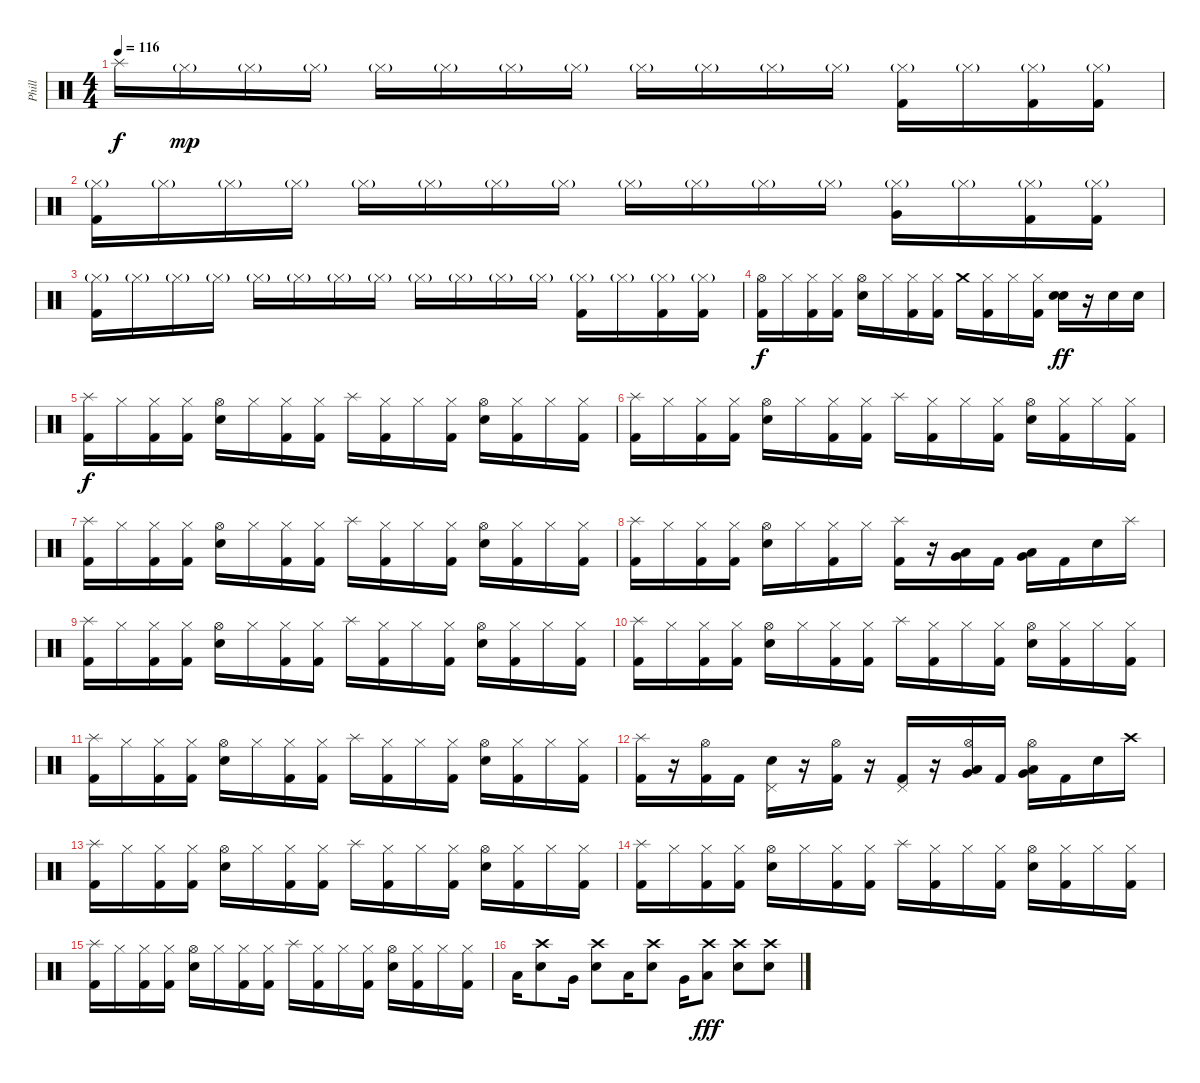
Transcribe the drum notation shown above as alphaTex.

\track ("Phill" "Phill") {instrument percussion}
\staff {score}
\articulation defaults
\ts (4 4)
\tempo 116
\clef neutral
\ks c "Splash (hit)".16{dy f} "Hi-Hat (closed)"{g}.16{dy mp} "Hi-Hat (closed)"{g}.16 "Hi-Hat (closed)"{g}.16 "Hi-Hat (closed)"{g}.16 "Hi-Hat (closed)"{g}.16 "Hi-Hat (closed)"{g}.16 "Hi-Hat (closed)"{g}.16 "Hi-Hat (closed)"{g}.16 "Hi-Hat (closed)"{g}.16 "Hi-Hat (closed)"{g}.16 "Hi-Hat (closed)"{g}.16
("Hi-Hat (closed)"{g} "Kick (hit) 2").16 "Hi-Hat (closed)"{g}.16 ("Hi-Hat (closed)"{g} "Kick (hit) 2").16 ("Hi-Hat (closed)"{g} "Kick (hit) 2").16 |
("Hi-Hat (closed)"{g} "Kick (hit) 2").16 "Hi-Hat (closed)"{g}.16 "Hi-Hat (closed)"{g}.16 "Hi-Hat (closed)"{g}.16 "Hi-Hat (closed)"{g}.16 "Hi-Hat (closed)"{g}.16 "Hi-Hat (closed)"{g}.16 "Hi-Hat (closed)"{g}.16 "Hi-Hat (closed)"{g}.16 "Hi-Hat (closed)"{g}.16 "Hi-Hat (closed)"{g}.16 "Hi-Hat (closed)"{g}.16 ("Hi-Hat (closed)"{g} "Very Low Tom (hit)").16 "Hi-Hat (closed)"{g}.16 ("Hi-Hat (closed)"{g} "Kick (hit) 2").16 ("Hi-Hat (closed)"{g} "Kick (hit) 2").16 |
("Hi-Hat (closed)"{g} "Kick (hit) 2").16 "Hi-Hat (closed)"{g}.16 "Hi-Hat (closed)"{g}.16 "Hi-Hat (closed)"{g}.16 "Hi-Hat (closed)"{g}.16 "Hi-Hat (closed)"{g}.16 "Hi-Hat (closed)"{g}.16 "Hi-Hat (closed)"{g}.16 "Hi-Hat (closed)"{g}.16 "Hi-Hat (closed)"{g}.16 "Hi-Hat (closed)"{g}.16 "Hi-Hat (closed)"{g}.16 ("Hi-Hat (closed)"{g} "Kick (hit) 2").16 "Hi-Hat (closed)"{g}.16 ("Hi-Hat (closed)"{g} "Kick (hit) 2").16 ("Hi-Hat (closed)"{g} "Kick (hit) 2").16 |
("Hi-Hat (open)" "Kick (hit) 2").16{dy f} "Hi-Hat (closed)".16 ("Hi-Hat (closed)" "Kick (hit) 2").16 ("Hi-Hat (closed)" "Kick (hit) 2").16 ("Hi-Hat (open)" "Electric Snare (hit)").16 "Hi-Hat (closed)".16 ("Hi-Hat (closed)" "Kick (hit) 2").16 ("Hi-Hat (closed)" "Kick (hit) 2").16 "Crash medium (hit)".16 ("Hi-Hat (closed)" "Kick (hit) 2").16 "Hi-Hat (closed)".16 ("Hi-Hat (closed)" "Kick (hit) 2").16 ("Electric Snare (hit)" "Electric Snare (hit)").16{bd 480 dy ff} r.16 "Electric Snare (hit)".16 "Electric Snare (hit)".16 |
("Splash (hit)" "Kick (hit) 2").16{dy f} "Hi-Hat (closed)".16 ("Hi-Hat (closed)" "Kick (hit) 2").16 ("Hi-Hat (closed)" "Kick (hit) 2").16 ("Hi-Hat (open)" "Electric Snare (hit)").16 "Hi-Hat (closed)".16 ("Hi-Hat (closed)" "Kick (hit) 2").16 ("Hi-Hat (closed)" "Kick (hit) 2").16 "Splash (hit)".16 ("Hi-Hat (closed)" "Kick (hit) 2").16 "Hi-Hat (closed)".16 ("Hi-Hat (closed)" "Kick (hit) 2").16 ("Hi-Hat (open)" "Electric Snare (hit)").16 ("Hi-Hat (closed)" "Kick (hit) 2").16 "Hi-Hat (closed)".16 ("Hi-Hat (closed)" "Kick (hit) 2").16 |
("Splash (hit)" "Kick (hit) 2").16 "Hi-Hat (closed)".16 ("Hi-Hat (closed)" "Kick (hit) 2").16 ("Hi-Hat (closed)" "Kick (hit) 2").16 ("Hi-Hat (open)" "Electric Snare (hit)").16 "Hi-Hat (closed)".16 ("Hi-Hat (closed)" "Kick (hit) 2").16 ("Hi-Hat (closed)" "Kick (hit) 2").16 "Splash (hit)".16 ("Hi-Hat (closed)" "Kick (hit) 2").16 "Hi-Hat (closed)".16 ("Hi-Hat (closed)" "Kick (hit) 2").16 ("Hi-Hat (open)" "Electric Snare (hit)").16 ("Hi-Hat (closed)" "Kick (hit) 2").16 "Hi-Hat (closed)".16 ("Hi-Hat (closed)" "Kick (hit) 2").16 |
("Splash (hit)" "Kick (hit) 2").16 "Hi-Hat (closed)".16 ("Hi-Hat (closed)" "Kick (hit) 2").16 ("Hi-Hat (closed)" "Kick (hit) 2").16 ("Hi-Hat (open)" "Electric Snare (hit)").16 "Hi-Hat (closed)".16 ("Hi-Hat (closed)" "Kick (hit) 2").16 ("Hi-Hat (closed)" "Kick (hit) 2").16 "Splash (hit)".16 ("Hi-Hat (closed)" "Kick (hit) 2").16 "Hi-Hat (closed)".16 ("Hi-Hat (closed)" "Kick (hit) 2").16 ("Hi-Hat (open)" "Electric Snare (hit)").16 ("Hi-Hat (closed)" "Kick (hit) 2").16 "Hi-Hat (closed)".16 ("Hi-Hat (closed)" "Kick (hit) 2").16 |
("Splash (hit)" "Kick (hit) 2").16 "Hi-Hat (closed)".16 ("Hi-Hat (closed)" "Kick (hit) 2").16 ("Hi-Hat (closed)" "Kick (hit) 2").16 ("Hi-Hat (open)" "Electric Snare (hit)").16 "Hi-Hat (closed)".16 ("Hi-Hat (closed)" "Kick (hit) 2").16 "Hi-Hat (closed)".16 ("Splash (hit)" "Kick (hit) 2").16 r.16 ("Very Low Tom (hit)" "Low Tom (hit)").16 "Kick (hit) 2".16 ("Very Low Tom (hit)" "Low Tom (hit)").16 "Kick (hit) 2".16 "Electric Snare (hit)".16 "Splash (hit)".16 |
("Splash (hit)" "Kick (hit) 2").16 "Hi-Hat (closed)".16 ("Hi-Hat (closed)" "Kick (hit) 2").16 ("Hi-Hat (closed)" "Kick (hit) 2").16 ("Hi-Hat (open)" "Electric Snare (hit)").16 "Hi-Hat (closed)".16 ("Hi-Hat (closed)" "Kick (hit) 2").16 ("Hi-Hat (closed)" "Kick (hit) 2").16 "Splash (hit)".16 ("Hi-Hat (closed)" "Kick (hit) 2").16 "Hi-Hat (closed)".16 ("Hi-Hat (closed)" "Kick (hit) 2").16 ("Hi-Hat (open)" "Electric Snare (hit)").16 ("Hi-Hat (closed)" "Kick (hit) 2").16 "Hi-Hat (closed)".16 ("Hi-Hat (closed)" "Kick (hit) 2").16 |
("Splash (hit)" "Kick (hit) 2").16 "Hi-Hat (closed)".16 ("Hi-Hat (closed)" "Kick (hit) 2").16 ("Hi-Hat (closed)" "Kick (hit) 2").16 ("Hi-Hat (open)" "Electric Snare (hit)").16 "Hi-Hat (closed)".16 ("Hi-Hat (closed)" "Kick (hit) 2").16 ("Hi-Hat (closed)" "Kick (hit) 2").16 "Splash (hit)".16 ("Hi-Hat (closed)" "Kick (hit) 2").16 "Hi-Hat (closed)".16 ("Hi-Hat (closed)" "Kick (hit) 2").16 ("Hi-Hat (open)" "Electric Snare (hit)").16 ("Hi-Hat (closed)" "Kick (hit) 2").16 "Hi-Hat (closed)".16 ("Hi-Hat (closed)" "Kick (hit) 2").16 |
("Splash (hit)" "Kick (hit) 2").16 "Hi-Hat (closed)".16 ("Hi-Hat (closed)" "Kick (hit) 2").16 ("Hi-Hat (closed)" "Kick (hit) 2").16 ("Hi-Hat (open)" "Electric Snare (hit)").16 "Hi-Hat (closed)".16 ("Hi-Hat (closed)" "Kick (hit) 2").16 ("Hi-Hat (closed)" "Kick (hit) 2").16 "Splash (hit)".16 ("Hi-Hat (closed)" "Kick (hit) 2").16 "Hi-Hat (closed)".16 ("Hi-Hat (closed)" "Kick (hit) 2").16 ("Hi-Hat (open)" "Electric Snare (hit)").16 ("Hi-Hat (closed)" "Kick (hit) 2").16 "Hi-Hat (closed)".16 ("Hi-Hat (closed)" "Kick (hit) 2").16 |
("Splash (hit)" "Kick (hit) 2").16 r.16 ("Hi-Hat (open)" "Kick (hit) 2").16 "Kick (hit) 2".16 ("Pedal Hi-Hat (hit)" "Electric Snare (hit)").16 r.16 ("Hi-Hat (open)" "Kick (hit) 2").16 r.16 ("Pedal Hi-Hat (hit)" "Kick (hit) 2").16 r.16 ("Hi-Hat (open)" "Very Low Tom (hit)" "Low Tom (hit)").16 "Kick (hit) 2".16 ("Hi-Hat (open)" "Very Low Tom (hit)" "Low Tom (hit)").16 "Kick (hit) 2".16 "Electric Snare (hit)".16 "Crash high (hit)".16 |
("Splash (hit)" "Kick (hit) 2").16 "Hi-Hat (closed)".16 ("Hi-Hat (closed)" "Kick (hit) 2").16 ("Hi-Hat (closed)" "Kick (hit) 2").16 ("Hi-Hat (open)" "Electric Snare (hit)").16 "Hi-Hat (closed)".16 ("Hi-Hat (closed)" "Kick (hit) 2").16 ("Hi-Hat (closed)" "Kick (hit) 2").16 "Splash (hit)".16 ("Hi-Hat (closed)" "Kick (hit) 2").16 "Hi-Hat (closed)".16 ("Hi-Hat (closed)" "Kick (hit) 2").16 ("Hi-Hat (open)" "Electric Snare (hit)").16 ("Hi-Hat (closed)" "Kick (hit) 2").16 "Hi-Hat (closed)".16 ("Hi-Hat (closed)" "Kick (hit) 2").16 |
("Splash (hit)" "Kick (hit) 2").16 "Hi-Hat (closed)".16 ("Hi-Hat (closed)" "Kick (hit) 2").16 ("Hi-Hat (closed)" "Kick (hit) 2").16 ("Hi-Hat (open)" "Electric Snare (hit)").16 "Hi-Hat (closed)".16 ("Hi-Hat (closed)" "Kick (hit) 2").16 ("Hi-Hat (closed)" "Kick (hit) 2").16 "Splash (hit)".16 ("Hi-Hat (closed)" "Kick (hit) 2").16 "Hi-Hat (closed)".16 ("Hi-Hat (closed)" "Kick (hit) 2").16 ("Hi-Hat (open)" "Electric Snare (hit)").16 ("Hi-Hat (closed)" "Kick (hit) 2").16 "Hi-Hat (closed)".16 ("Hi-Hat (closed)" "Kick (hit) 2").16 |
("Splash (hit)" "Kick (hit) 2").16 "Hi-Hat (closed)".16 ("Hi-Hat (closed)" "Kick (hit) 2").16 ("Hi-Hat (closed)" "Kick (hit) 2").16 ("Hi-Hat (open)" "Electric Snare (hit)").16 "Hi-Hat (closed)".16 ("Hi-Hat (closed)" "Kick (hit) 2").16 ("Hi-Hat (closed)" "Kick (hit) 2").16 "Splash (hit)".16 ("Hi-Hat (closed)" "Kick (hit) 2").16 "Hi-Hat (closed)".16 ("Hi-Hat (closed)" "Kick (hit) 2").16 ("Hi-Hat (open)" "Electric Snare (hit)").16 ("Hi-Hat (closed)" "Kick (hit) 2").16 "Hi-Hat (closed)".16 ("Hi-Hat (closed)" "Kick (hit) 2").16 |
"Low Tom (hit)".16 ("Crash high (hit)" "Electric Snare (hit)").8 "Very Low Tom (hit)".16 ("Crash high (hit)" "Electric Snare (hit)").8 "Low Floor Tom (hit)".16 ("Crash high (hit)" "Electric Snare (hit)").8 "Very Low Tom (hit)".16 ("Crash high (hit)" "Low Floor Tom (hit)").8{dy fff} ("Crash high (hit)" "Electric Snare (hit)").8 ("Crash high (hit)" "Electric Snare (hit)").8
